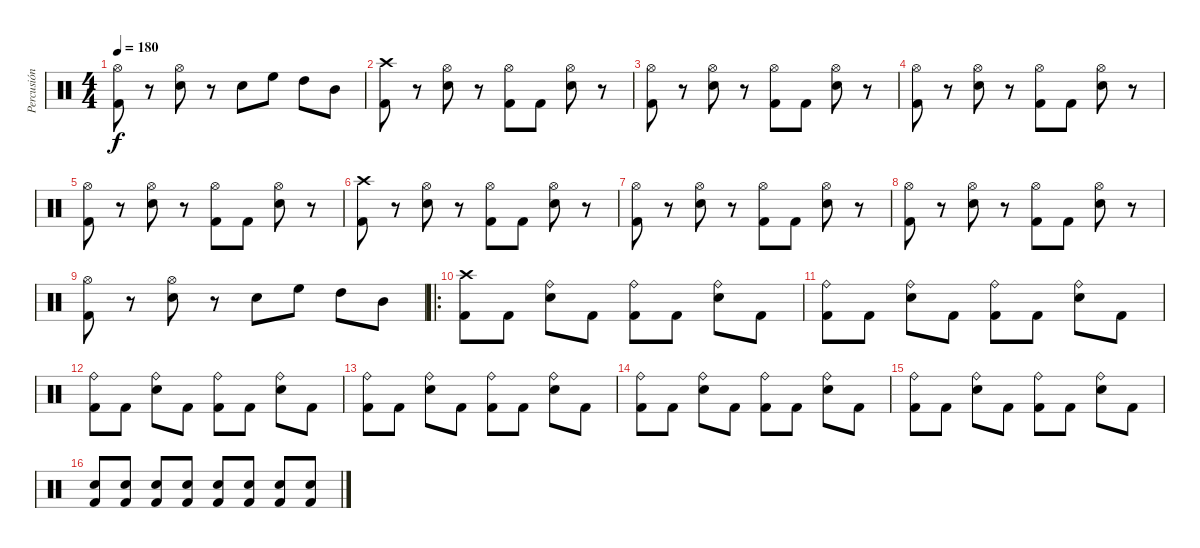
\track ("Percusión" "Percusión") {instrument percussion}
\staff {score}
\articulation defaults
\ts (4 4)
\tempo 180
\clef neutral
\ks c
("Hi-Hat (open)" "Kick (hit) 2").8{dy f} r.8 ("Hi-Hat (open)" "Electric Snare (hit)").8 r.8 "Electric Snare (hit)".8 "High Floor Tom (hit)".8 "High Tom (hit)".8 "Mid Tom (hit)".8 |
("Crash high (hit)" "Kick (hit) 2").8 r.8 ("Hi-Hat (open)" "Electric Snare (hit)").8 r.8 ("Hi-Hat (open)" "Kick (hit) 2").8 "Kick (hit) 2".8 ("Hi-Hat (open)" "Electric Snare (hit)").8 r.8 |
("Hi-Hat (open)" "Kick (hit) 2").8 r.8 ("Hi-Hat (open)" "Electric Snare (hit)").8 r.8 ("Hi-Hat (open)" "Kick (hit) 2").8 "Kick (hit) 2".8 ("Hi-Hat (open)" "Electric Snare (hit)").8 r.8 |
("Hi-Hat (open)" "Kick (hit) 2").8 r.8 ("Hi-Hat (open)" "Electric Snare (hit)").8 r.8 ("Hi-Hat (open)" "Kick (hit) 2").8 "Kick (hit) 2".8 ("Hi-Hat (open)" "Electric Snare (hit)").8 r.8 |
("Hi-Hat (open)" "Kick (hit) 2").8 r.8 ("Hi-Hat (open)" "Electric Snare (hit)").8 r.8 ("Hi-Hat (open)" "Kick (hit) 2").8 "Kick (hit) 2".8 ("Hi-Hat (open)" "Electric Snare (hit)").8 r.8 |
("Crash high (hit)" "Kick (hit) 2").8 r.8 ("Hi-Hat (open)" "Electric Snare (hit)").8 r.8 ("Hi-Hat (open)" "Kick (hit) 2").8 "Kick (hit) 2".8 ("Hi-Hat (open)" "Electric Snare (hit)").8 r.8 |
("Hi-Hat (open)" "Kick (hit) 2").8 r.8 ("Hi-Hat (open)" "Electric Snare (hit)").8 r.8 ("Hi-Hat (open)" "Kick (hit) 2").8 "Kick (hit) 2".8 ("Hi-Hat (open)" "Electric Snare (hit)").8 r.8 |
("Hi-Hat (open)" "Kick (hit) 2").8 r.8 ("Hi-Hat (open)" "Electric Snare (hit)").8 r.8 ("Hi-Hat (open)" "Kick (hit) 2").8 "Kick (hit) 2".8 ("Hi-Hat (open)" "Electric Snare (hit)").8 r.8 |
("Hi-Hat (open)" "Kick (hit) 2").8 r.8 ("Hi-Hat (open)" "Electric Snare (hit)").8 r.8 "Electric Snare (hit)".8 "High Floor Tom (hit)".8 "High Tom (hit)".8 "Mid Tom (hit)".8 |
\ro
("Crash high (hit)" "Kick (hit) 2").8 "Kick (hit) 2".8 ("Ride (bell)" "Electric Snare (hit)").8 "Kick (hit) 2".8 ("Ride (bell)" "Kick (hit) 2").8 "Kick (hit) 2".8 ("Ride (bell)" "Electric Snare (hit)").8 "Kick (hit) 2".8 |
("Ride (bell)" "Kick (hit) 2").8 "Kick (hit) 2".8 ("Ride (bell)" "Electric Snare (hit)").8 "Kick (hit) 2".8 ("Ride (bell)" "Kick (hit) 2").8 "Kick (hit) 2".8 ("Ride (bell)" "Electric Snare (hit)").8 "Kick (hit) 2".8 |
("Ride (bell)" "Kick (hit) 2").8 "Kick (hit) 2".8 ("Ride (bell)" "Electric Snare (hit)").8 "Kick (hit) 2".8 ("Ride (bell)" "Kick (hit) 2").8 "Kick (hit) 2".8 ("Ride (bell)" "Electric Snare (hit)").8 "Kick (hit) 2".8 |
("Ride (bell)" "Kick (hit) 2").8 "Kick (hit) 2".8 ("Ride (bell)" "Electric Snare (hit)").8 "Kick (hit) 2".8 ("Ride (bell)" "Kick (hit) 2").8 "Kick (hit) 2".8 ("Ride (bell)" "Electric Snare (hit)").8 "Kick (hit) 2".8 |
("Ride (bell)" "Kick (hit) 2").8 "Kick (hit) 2".8 ("Ride (bell)" "Electric Snare (hit)").8 "Kick (hit) 2".8 ("Ride (bell)" "Kick (hit) 2").8 "Kick (hit) 2".8 ("Ride (bell)" "Electric Snare (hit)").8 "Kick (hit) 2".8 |
("Ride (bell)" "Kick (hit) 2").8 "Kick (hit) 2".8 ("Ride (bell)" "Electric Snare (hit)").8 "Kick (hit) 2".8 ("Ride (bell)" "Kick (hit) 2").8 "Kick (hit) 2".8 ("Ride (bell)" "Electric Snare (hit)").8 "Kick (hit) 2".8 |
("Kick (hit) 2" "Electric Snare (hit)").8 ("Kick (hit) 2" "Electric Snare (hit)").8 ("Kick (hit) 2" "Electric Snare (hit)").8 ("Kick (hit) 2" "Electric Snare (hit)").8 ("Kick (hit) 2" "Electric Snare (hit)").8 ("Kick (hit) 2" "Electric Snare (hit)").8 ("Kick (hit) 2" "Electric Snare (hit)").8 ("Kick (hit) 2" "Electric Snare (hit)").8
